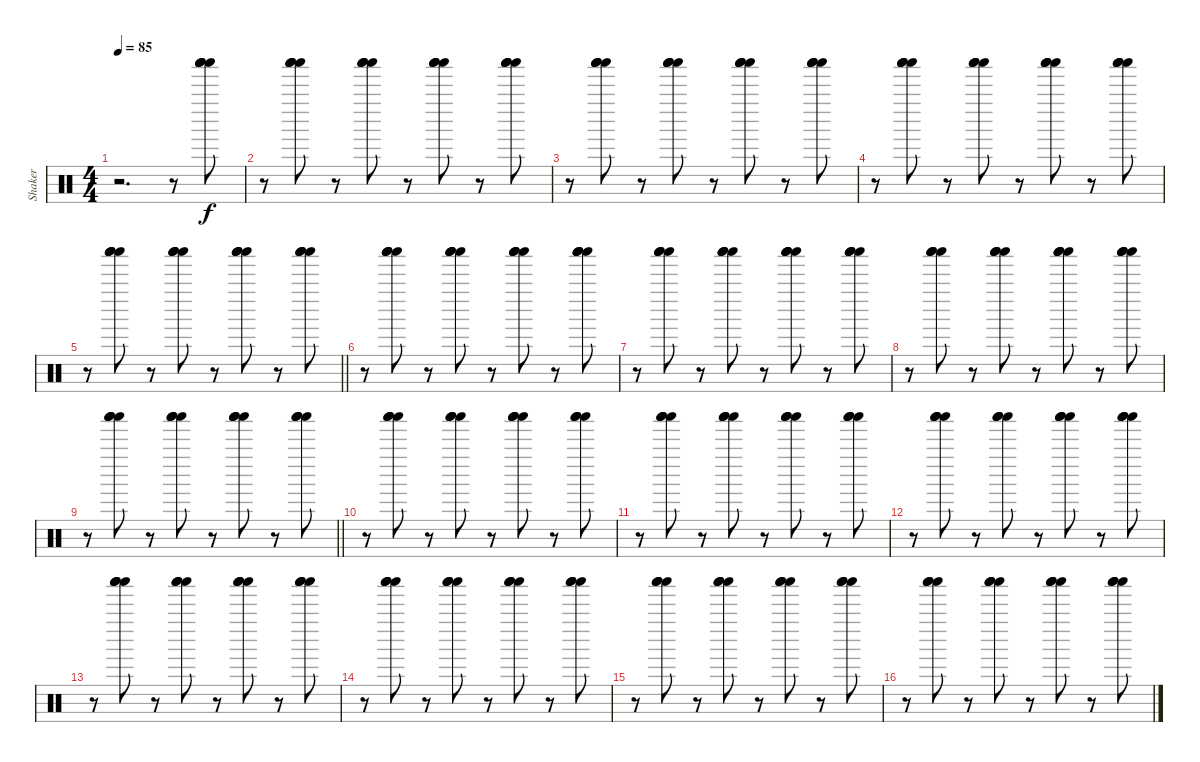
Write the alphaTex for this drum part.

\track ("Shaker" "Shaker") {instrument percussion}
\staff {score}
\articulation defaults
\ts (4 4)
\tempo 85
\clef neutral
\ks c
r.2{d dy f} r.8 ("Shaker (hit)" "Shaker (hit)" "Shaker (hit)" "Shaker (hit)").8 |
r.8 ("Shaker (hit)" "Shaker (hit)" "Shaker (hit)" "Shaker (hit)").8 r.8 ("Shaker (hit)" "Shaker (hit)" "Shaker (hit)" "Shaker (hit)").8 r.8 ("Shaker (hit)" "Shaker (hit)" "Shaker (hit)" "Shaker (hit)").8 r.8 ("Shaker (hit)" "Shaker (hit)" "Shaker (hit)" "Shaker (hit)").8 |
r.8 ("Shaker (hit)" "Shaker (hit)" "Shaker (hit)" "Shaker (hit)").8 r.8 ("Shaker (hit)" "Shaker (hit)" "Shaker (hit)" "Shaker (hit)").8 r.8 ("Shaker (hit)" "Shaker (hit)" "Shaker (hit)" "Shaker (hit)").8 r.8 ("Shaker (hit)" "Shaker (hit)" "Shaker (hit)" "Shaker (hit)").8 |
r.8 ("Shaker (hit)" "Shaker (hit)" "Shaker (hit)" "Shaker (hit)").8 r.8 ("Shaker (hit)" "Shaker (hit)" "Shaker (hit)" "Shaker (hit)").8 r.8 ("Shaker (hit)" "Shaker (hit)" "Shaker (hit)" "Shaker (hit)").8 r.8 ("Shaker (hit)" "Shaker (hit)" "Shaker (hit)" "Shaker (hit)").8 |
\barLineRight lightlight
r.8 ("Shaker (hit)" "Shaker (hit)" "Shaker (hit)" "Shaker (hit)").8 r.8 ("Shaker (hit)" "Shaker (hit)" "Shaker (hit)" "Shaker (hit)").8 r.8 ("Shaker (hit)" "Shaker (hit)" "Shaker (hit)" "Shaker (hit)").8 r.8 ("Shaker (hit)" "Shaker (hit)" "Shaker (hit)" "Shaker (hit)").8 |
r.8 ("Shaker (hit)" "Shaker (hit)" "Shaker (hit)" "Shaker (hit)").8 r.8 ("Shaker (hit)" "Shaker (hit)" "Shaker (hit)" "Shaker (hit)").8 r.8 ("Shaker (hit)" "Shaker (hit)" "Shaker (hit)" "Shaker (hit)").8 r.8 ("Shaker (hit)" "Shaker (hit)" "Shaker (hit)" "Shaker (hit)").8 |
r.8 ("Shaker (hit)" "Shaker (hit)" "Shaker (hit)" "Shaker (hit)").8 r.8 ("Shaker (hit)" "Shaker (hit)" "Shaker (hit)" "Shaker (hit)").8 r.8 ("Shaker (hit)" "Shaker (hit)" "Shaker (hit)" "Shaker (hit)").8 r.8 ("Shaker (hit)" "Shaker (hit)" "Shaker (hit)" "Shaker (hit)").8 |
r.8 ("Shaker (hit)" "Shaker (hit)" "Shaker (hit)" "Shaker (hit)").8 r.8 ("Shaker (hit)" "Shaker (hit)" "Shaker (hit)" "Shaker (hit)").8 r.8 ("Shaker (hit)" "Shaker (hit)" "Shaker (hit)" "Shaker (hit)").8 r.8 ("Shaker (hit)" "Shaker (hit)" "Shaker (hit)" "Shaker (hit)").8 |
\barLineRight lightlight
r.8 ("Shaker (hit)" "Shaker (hit)" "Shaker (hit)" "Shaker (hit)").8 r.8 ("Shaker (hit)" "Shaker (hit)" "Shaker (hit)" "Shaker (hit)").8 r.8 ("Shaker (hit)" "Shaker (hit)" "Shaker (hit)" "Shaker (hit)").8 r.8 ("Shaker (hit)" "Shaker (hit)" "Shaker (hit)" "Shaker (hit)").8 |
r.8 ("Shaker (hit)" "Shaker (hit)" "Shaker (hit)" "Shaker (hit)").8 r.8 ("Shaker (hit)" "Shaker (hit)" "Shaker (hit)" "Shaker (hit)").8 r.8 ("Shaker (hit)" "Shaker (hit)" "Shaker (hit)" "Shaker (hit)").8 r.8 ("Shaker (hit)" "Shaker (hit)" "Shaker (hit)" "Shaker (hit)").8 |
r.8 ("Shaker (hit)" "Shaker (hit)" "Shaker (hit)" "Shaker (hit)").8 r.8 ("Shaker (hit)" "Shaker (hit)" "Shaker (hit)" "Shaker (hit)").8 r.8 ("Shaker (hit)" "Shaker (hit)" "Shaker (hit)" "Shaker (hit)").8 r.8 ("Shaker (hit)" "Shaker (hit)" "Shaker (hit)" "Shaker (hit)").8 |
r.8 ("Shaker (hit)" "Shaker (hit)" "Shaker (hit)" "Shaker (hit)").8 r.8 ("Shaker (hit)" "Shaker (hit)" "Shaker (hit)" "Shaker (hit)").8 r.8 ("Shaker (hit)" "Shaker (hit)" "Shaker (hit)" "Shaker (hit)").8 r.8 ("Shaker (hit)" "Shaker (hit)" "Shaker (hit)" "Shaker (hit)").8 |
r.8 ("Shaker (hit)" "Shaker (hit)" "Shaker (hit)" "Shaker (hit)").8 r.8 ("Shaker (hit)" "Shaker (hit)" "Shaker (hit)" "Shaker (hit)").8 r.8 ("Shaker (hit)" "Shaker (hit)" "Shaker (hit)" "Shaker (hit)").8 r.8 ("Shaker (hit)" "Shaker (hit)" "Shaker (hit)" "Shaker (hit)").8 |
r.8 ("Shaker (hit)" "Shaker (hit)" "Shaker (hit)" "Shaker (hit)").8 r.8 ("Shaker (hit)" "Shaker (hit)" "Shaker (hit)" "Shaker (hit)").8 r.8 ("Shaker (hit)" "Shaker (hit)" "Shaker (hit)" "Shaker (hit)").8 r.8 ("Shaker (hit)" "Shaker (hit)" "Shaker (hit)" "Shaker (hit)").8 |
r.8 ("Shaker (hit)" "Shaker (hit)" "Shaker (hit)" "Shaker (hit)").8 r.8 ("Shaker (hit)" "Shaker (hit)" "Shaker (hit)" "Shaker (hit)").8 r.8 ("Shaker (hit)" "Shaker (hit)" "Shaker (hit)" "Shaker (hit)").8 r.8 ("Shaker (hit)" "Shaker (hit)" "Shaker (hit)" "Shaker (hit)").8 |
r.8 ("Shaker (hit)" "Shaker (hit)" "Shaker (hit)" "Shaker (hit)").8 r.8 ("Shaker (hit)" "Shaker (hit)" "Shaker (hit)" "Shaker (hit)").8 r.8 ("Shaker (hit)" "Shaker (hit)" "Shaker (hit)" "Shaker (hit)").8 r.8 ("Shaker (hit)" "Shaker (hit)" "Shaker (hit)" "Shaker (hit)").8
